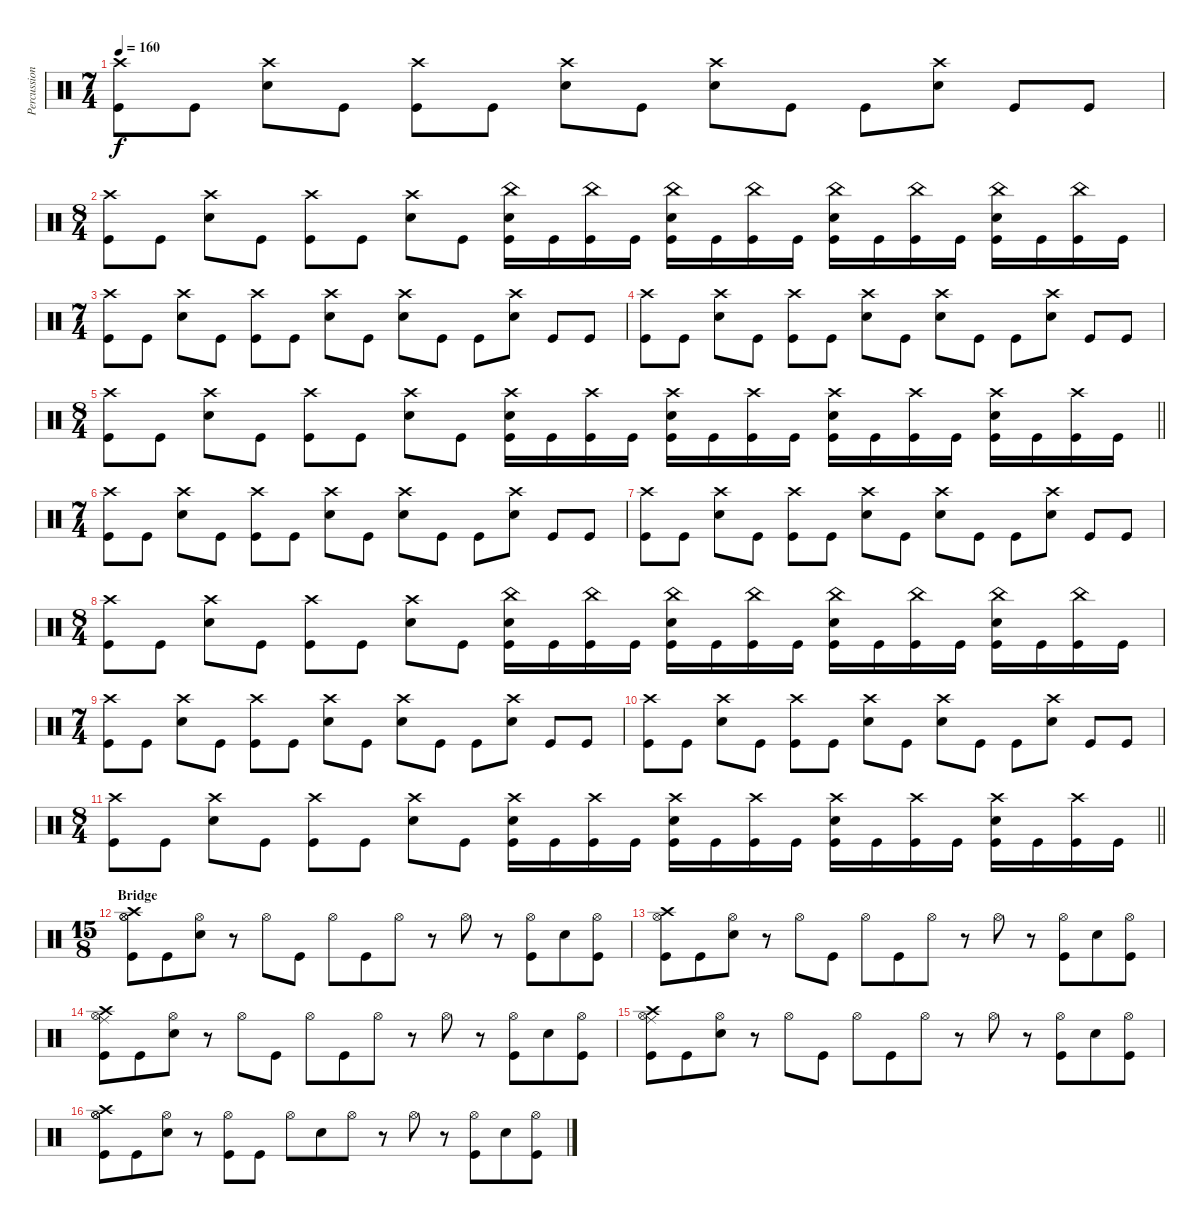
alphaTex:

\track ("Percussion" "Percussion") {instrument percussion}
\staff {score}
\articulation defaults
\ts (7 4)
\tempo 160
\clef neutral
\ks c
("Kick (hit)" "Crash high (hit)").8{dy f} "Kick (hit)".8 ("Snare (hit) 2" "Crash high (hit)").8 "Kick (hit)".8 ("Kick (hit)" "Crash high (hit)").8 "Kick (hit)".8 ("Snare (hit) 2" "Crash high (hit)").8 "Kick (hit)".8 ("Snare (hit) 2" "Crash high (hit)").8 "Kick (hit)".8 "Kick (hit)".8 ("Snare (hit) 2" "Crash high (hit)").8 "Kick (hit)".8 "Kick (hit)".8 |
\ts (8 4)
("Kick (hit)" "Crash high (hit)").8 "Kick (hit)".8 ("Snare (hit) 2" "Crash high (hit)").8 "Kick (hit)".8 ("Kick (hit)" "Crash high (hit)").8 "Kick (hit)".8 ("Snare (hit) 2" "Crash high (hit)").8 "Kick (hit)".8 ("Snare (hit) 2" "China (hit)" "Kick (hit)").16 "Kick (hit)".16 ("Kick (hit)" "China (hit)").16 "Kick (hit)".16 ("Kick (hit)" "China (hit)" "Snare (hit) 2").16 "Kick (hit)".16 ("Kick (hit)" "China (hit)").16 "Kick (hit)".16 ("Kick (hit)" "China (hit)" "Snare (hit) 2").16 "Kick (hit)".16 ("Kick (hit)" "China (hit)").16 "Kick (hit)".16 ("Kick (hit)" "China (hit)" "Snare (hit) 2").16 "Kick (hit)".16 ("Kick (hit)" "China (hit)").16 "Kick (hit)".16 |
\ts (7 4)
("Kick (hit)" "Crash high (hit)").8 "Kick (hit)".8 ("Snare (hit) 2" "Crash high (hit)").8 "Kick (hit)".8 ("Kick (hit)" "Crash high (hit)").8 "Kick (hit)".8 ("Snare (hit) 2" "Crash high (hit)").8 "Kick (hit)".8 ("Snare (hit) 2" "Crash high (hit)").8 "Kick (hit)".8 "Kick (hit)".8 ("Snare (hit) 2" "Crash high (hit)").8 "Kick (hit)".8 "Kick (hit)".8 |
("Kick (hit)" "Crash high (hit)").8 "Kick (hit)".8 ("Snare (hit) 2" "Crash high (hit)").8 "Kick (hit)".8 ("Kick (hit)" "Crash high (hit)").8 "Kick (hit)".8 ("Snare (hit) 2" "Crash high (hit)").8 "Kick (hit)".8 ("Snare (hit) 2" "Crash high (hit)").8 "Kick (hit)".8 "Kick (hit)".8 ("Snare (hit) 2" "Crash high (hit)").8 "Kick (hit)".8 "Kick (hit)".8 |
\ts (8 4)
\barLineRight lightlight
("Kick (hit)" "Crash high (hit)").8 "Kick (hit)".8 ("Snare (hit) 2" "Crash high (hit)").8 "Kick (hit)".8 ("Kick (hit)" "Crash high (hit)").8 "Kick (hit)".8 ("Snare (hit) 2" "Crash high (hit)").8 "Kick (hit)".8 ("Kick (hit)" "Snare (hit) 2" "Crash high (hit)").16 "Kick (hit)".16 ("Kick (hit)" "Crash high (hit)").16 "Kick (hit)".16 ("Kick (hit)" "Snare (hit) 2" "Crash high (hit)").16 "Kick (hit)".16 ("Kick (hit)" "Crash high (hit)").16 "Kick (hit)".16 ("Kick (hit)" "Snare (hit) 2" "Crash high (hit)").16 "Kick (hit)".16 ("Kick (hit)" "Crash high (hit)").16 "Kick (hit)".16 ("Kick (hit)" "Snare (hit) 2" "Crash high (hit)").16 "Kick (hit)".16 ("Kick (hit)" "Crash high (hit)").16 "Kick (hit)".16 |
\ts (7 4)
("Kick (hit)" "Crash high (hit)").8 "Kick (hit)".8 ("Snare (hit) 2" "Crash high (hit)").8 "Kick (hit)".8 ("Kick (hit)" "Crash high (hit)").8 "Kick (hit)".8 ("Snare (hit) 2" "Crash high (hit)").8 "Kick (hit)".8 ("Snare (hit) 2" "Crash high (hit)").8 "Kick (hit)".8 "Kick (hit)".8 ("Snare (hit) 2" "Crash high (hit)").8 "Kick (hit)".8 "Kick (hit)".8 |
("Kick (hit)" "Crash high (hit)").8 "Kick (hit)".8 ("Snare (hit) 2" "Crash high (hit)").8 "Kick (hit)".8 ("Kick (hit)" "Crash high (hit)").8 "Kick (hit)".8 ("Snare (hit) 2" "Crash high (hit)").8 "Kick (hit)".8 ("Snare (hit) 2" "Crash high (hit)").8 "Kick (hit)".8 "Kick (hit)".8 ("Snare (hit) 2" "Crash high (hit)").8 "Kick (hit)".8 "Kick (hit)".8 |
\ts (8 4)
("Kick (hit)" "Crash high (hit)").8 "Kick (hit)".8 ("Snare (hit) 2" "Crash high (hit)").8 "Kick (hit)".8 ("Kick (hit)" "Crash high (hit)").8 "Kick (hit)".8 ("Snare (hit) 2" "Crash high (hit)").8 "Kick (hit)".8 ("Snare (hit) 2" "China (hit)" "Kick (hit)").16 "Kick (hit)".16 ("Kick (hit)" "China (hit)").16 "Kick (hit)".16 ("Kick (hit)" "China (hit)" "Snare (hit) 2").16 "Kick (hit)".16 ("Kick (hit)" "China (hit)").16 "Kick (hit)".16 ("Kick (hit)" "China (hit)" "Snare (hit) 2").16 "Kick (hit)".16 ("Kick (hit)" "China (hit)").16 "Kick (hit)".16 ("Kick (hit)" "China (hit)" "Snare (hit) 2").16 "Kick (hit)".16 ("Kick (hit)" "China (hit)").16 "Kick (hit)".16 |
\ts (7 4)
("Kick (hit)" "Crash high (hit)").8 "Kick (hit)".8 ("Snare (hit) 2" "Crash high (hit)").8 "Kick (hit)".8 ("Kick (hit)" "Crash high (hit)").8 "Kick (hit)".8 ("Snare (hit) 2" "Crash high (hit)").8 "Kick (hit)".8 ("Snare (hit) 2" "Crash high (hit)").8 "Kick (hit)".8 "Kick (hit)".8 ("Snare (hit) 2" "Crash high (hit)").8 "Kick (hit)".8 "Kick (hit)".8 |
("Kick (hit)" "Crash high (hit)").8 "Kick (hit)".8 ("Snare (hit) 2" "Crash high (hit)").8 "Kick (hit)".8 ("Kick (hit)" "Crash high (hit)").8 "Kick (hit)".8 ("Snare (hit) 2" "Crash high (hit)").8 "Kick (hit)".8 ("Snare (hit) 2" "Crash high (hit)").8 "Kick (hit)".8 "Kick (hit)".8 ("Snare (hit) 2" "Crash high (hit)").8 "Kick (hit)".8 "Kick (hit)".8 |
\ts (8 4)
\barLineRight lightlight
("Kick (hit)" "Crash high (hit)").8 "Kick (hit)".8 ("Snare (hit) 2" "Crash high (hit)").8 "Kick (hit)".8 ("Kick (hit)" "Crash high (hit)").8 "Kick (hit)".8 ("Snare (hit) 2" "Crash high (hit)").8 "Kick (hit)".8 ("Kick (hit)" "Snare (hit) 2" "Crash high (hit)").16 "Kick (hit)".16 ("Kick (hit)" "Crash high (hit)").16 "Kick (hit)".16 ("Kick (hit)" "Snare (hit) 2" "Crash high (hit)").16 "Kick (hit)".16 ("Kick (hit)" "Crash high (hit)").16 "Kick (hit)".16 ("Kick (hit)" "Snare (hit) 2" "Crash high (hit)").16 "Kick (hit)".16 ("Kick (hit)" "Crash high (hit)").16 "Kick (hit)".16 ("Kick (hit)" "Snare (hit) 2" "Crash high (hit)").16 "Kick (hit)".16 ("Kick (hit)" "Crash high (hit)").16 "Kick (hit)".16 |
\ts (15 8)
\section ("" "Bridge")
("Kick (hit)" "Hi-Hat (open)" "Crash high (hit)" "Hi-Hat (open)").8 "Kick (hit)".8 ("Snare (hit) 2" "Hi-Hat (open)").8 r.8 "Hi-Hat (open)".8 "Kick (hit)".8 "Hi-Hat (open)".8 "Kick (hit)".8 "Hi-Hat (open)".8 r.8 "Hi-Hat (open)".8 r.8 ("Kick (hit)" "Hi-Hat (open)").8 "Snare (hit) 2".8 ("Kick (hit)" "Hi-Hat (open)").8 |
("Kick (hit)" "Crash high (hit)" "Hi-Hat (open)").8 "Kick (hit)".8 ("Snare (hit) 2" "Hi-Hat (open)").8 r.8 "Hi-Hat (open)".8 "Kick (hit)".8 "Hi-Hat (open)".8 "Kick (hit)".8 "Hi-Hat (open)".8 r.8 "Hi-Hat (open)".8 r.8 ("Kick (hit)" "Hi-Hat (open)").8 "Snare (hit) 2".8 ("Kick (hit)" "Hi-Hat (open)").8 |
("Kick (hit)" "Ride (middle)" "Crash high (hit)" "Hi-Hat (open)").8 "Kick (hit)".8 ("Snare (hit) 2" "Hi-Hat (open)").8 r.8 "Hi-Hat (open)".8 "Kick (hit)".8 "Hi-Hat (open)".8 "Kick (hit)".8 "Hi-Hat (open)".8 r.8 "Hi-Hat (open)".8 r.8 ("Kick (hit)" "Hi-Hat (open)").8 "Snare (hit) 2".8 ("Kick (hit)" "Hi-Hat (open)").8 |
("Kick (hit)" "Ride (middle)" "Crash high (hit)" "Hi-Hat (open)").8 "Kick (hit)".8 ("Snare (hit) 2" "Hi-Hat (open)").8 r.8 "Hi-Hat (open)".8 "Kick (hit)".8 "Hi-Hat (open)".8 "Kick (hit)".8 "Hi-Hat (open)".8 r.8 "Hi-Hat (open)".8 r.8 ("Kick (hit)" "Hi-Hat (open)").8 "Snare (hit) 2".8 ("Kick (hit)" "Hi-Hat (open)").8 |
("Kick (hit)" "Hi-Hat (open)" "Crash high (hit)" "Hi-Hat (open)").8 "Kick (hit)".8 ("Snare (hit) 2" "Hi-Hat (open)").8 r.8 ("Hi-Hat (open)" "Kick (hit)").8 "Kick (hit)".8 "Hi-Hat (open)".8 "Snare (hit) 2".8 "Hi-Hat (open)".8 r.8 "Hi-Hat (open)".8 r.8 ("Kick (hit)" "Hi-Hat (open)").8 "Snare (hit) 2".8 ("Kick (hit)" "Hi-Hat (open)").8
